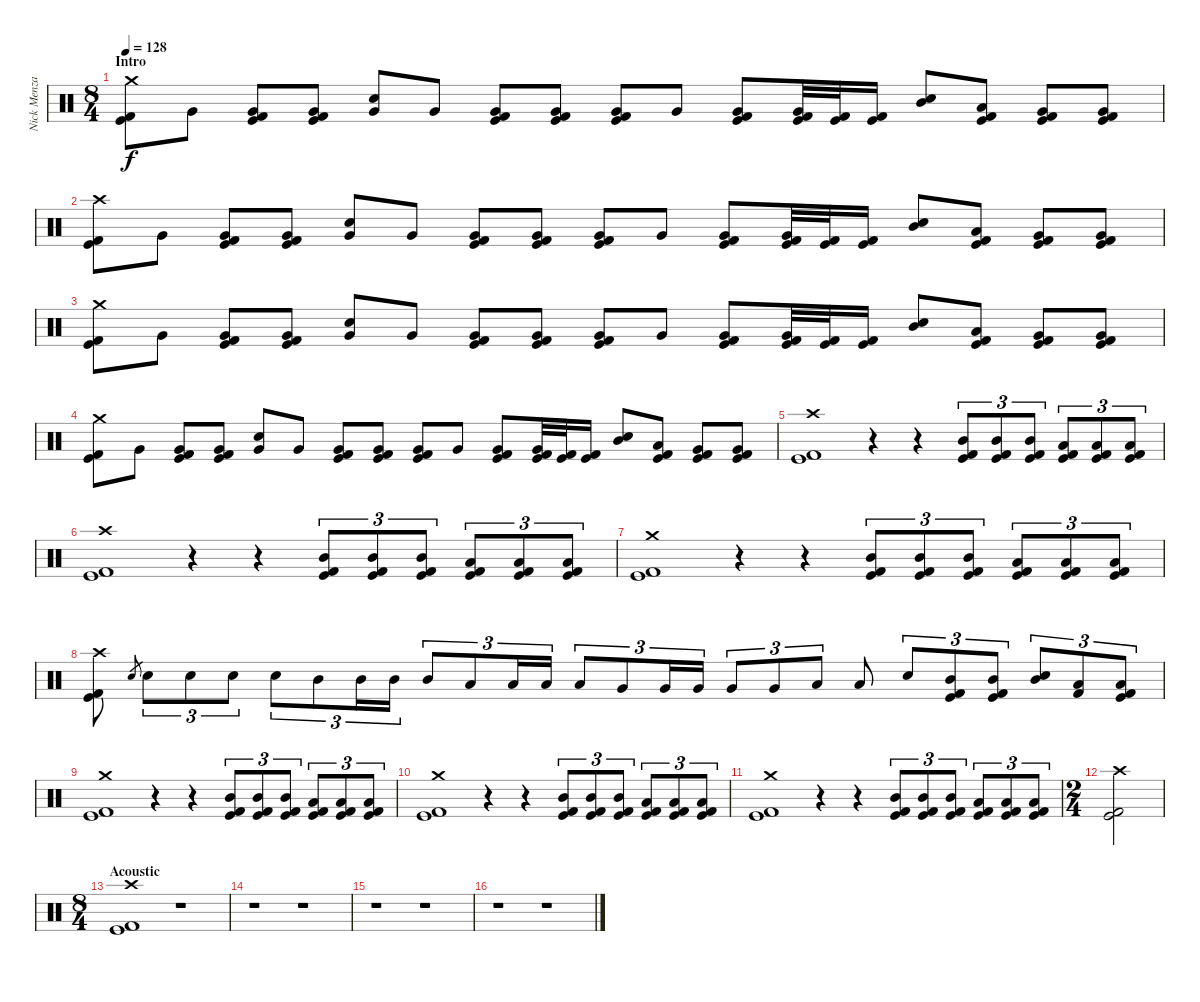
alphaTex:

\track ("Nick Menza" "Nick Menza") {instrument percussion}
\staff {score}
\articulation defaults
\ts (8 4)
\section ("" "Intro")
\tempo 128
\clef neutral
\ks c
("Crash medium (hit)" "Kick (hit)" "Kick (hit) 2").8{dy f} "Very Low Tom (hit)".8 ("Very Low Tom (hit)" "Kick (hit)" "Kick (hit) 2").8 ("Very Low Tom (hit)" "Kick (hit)" "Kick (hit) 2").8 ("Very Low Tom (hit)" "Electric Snare (hit)").8 "Very Low Tom (hit)".8 ("Very Low Tom (hit)" "Kick (hit)" "Kick (hit) 2").8 ("Very Low Tom (hit)" "Kick (hit)" "Kick (hit) 2").8 ("Very Low Tom (hit)" "Kick (hit)" "Kick (hit) 2").8 "Very Low Tom (hit)".8 ("Very Low Tom (hit)" "Kick (hit)" "Kick (hit) 2").8 ("Very Low Tom (hit)" "Kick (hit)" "Kick (hit) 2").32 ("Kick (hit)" "Kick (hit) 2").32 ("Kick (hit)" "Kick (hit) 2").16 ("Mid Tom (hit)" "Electric Snare (hit)").8 ("Low Tom (hit)" "Kick (hit)" "Kick (hit) 2").8 ("Very Low Tom (hit)" "Kick (hit)" "Kick (hit) 2").8 ("Very Low Tom (hit)" "Kick (hit)" "Kick (hit) 2").8 |
("Crash high (hit)" "Kick (hit)" "Kick (hit) 2").8 "Very Low Tom (hit)".8 ("Very Low Tom (hit)" "Kick (hit)" "Kick (hit) 2").8 ("Very Low Tom (hit)" "Kick (hit)" "Kick (hit) 2").8 ("Very Low Tom (hit)" "Electric Snare (hit)").8 "Very Low Tom (hit)".8 ("Very Low Tom (hit)" "Kick (hit)" "Kick (hit) 2").8 ("Very Low Tom (hit)" "Kick (hit)" "Kick (hit) 2").8 ("Very Low Tom (hit)" "Kick (hit)" "Kick (hit) 2").8 "Very Low Tom (hit)".8 ("Very Low Tom (hit)" "Kick (hit)" "Kick (hit) 2").8 ("Very Low Tom (hit)" "Kick (hit)" "Kick (hit) 2").32 ("Kick (hit)" "Kick (hit) 2").32 ("Kick (hit)" "Kick (hit) 2").16 ("Mid Tom (hit)" "Electric Snare (hit)").8 ("Low Tom (hit)" "Kick (hit)" "Kick (hit) 2").8 ("Very Low Tom (hit)" "Kick (hit)" "Kick (hit) 2").8 ("Very Low Tom (hit)" "Kick (hit)" "Kick (hit) 2").8 |
("Crash medium (hit)" "Kick (hit)" "Kick (hit) 2").8 "Very Low Tom (hit)".8 ("Very Low Tom (hit)" "Kick (hit)" "Kick (hit) 2").8 ("Very Low Tom (hit)" "Kick (hit)" "Kick (hit) 2").8 ("Very Low Tom (hit)" "Electric Snare (hit)").8 "Very Low Tom (hit)".8 ("Very Low Tom (hit)" "Kick (hit)" "Kick (hit) 2").8 ("Very Low Tom (hit)" "Kick (hit)" "Kick (hit) 2").8 ("Very Low Tom (hit)" "Kick (hit)" "Kick (hit) 2").8 "Very Low Tom (hit)".8 ("Very Low Tom (hit)" "Kick (hit)" "Kick (hit) 2").8 ("Very Low Tom (hit)" "Kick (hit)" "Kick (hit) 2").32 ("Kick (hit)" "Kick (hit) 2").32 ("Kick (hit)" "Kick (hit) 2").16 ("Mid Tom (hit)" "Electric Snare (hit)").8 ("Low Tom (hit)" "Kick (hit)" "Kick (hit) 2").8 ("Very Low Tom (hit)" "Kick (hit)" "Kick (hit) 2").8 ("Very Low Tom (hit)" "Kick (hit)" "Kick (hit) 2").8 |
("Crash medium (hit)" "Kick (hit)" "Kick (hit) 2").8 "Very Low Tom (hit)".8 ("Very Low Tom (hit)" "Kick (hit)" "Kick (hit) 2").8 ("Very Low Tom (hit)" "Kick (hit)" "Kick (hit) 2").8 ("Very Low Tom (hit)" "Electric Snare (hit)").8 "Very Low Tom (hit)".8 ("Very Low Tom (hit)" "Kick (hit)" "Kick (hit) 2").8 ("Very Low Tom (hit)" "Kick (hit)" "Kick (hit) 2").8 ("Very Low Tom (hit)" "Kick (hit)" "Kick (hit) 2").8 "Very Low Tom (hit)".8 ("Very Low Tom (hit)" "Kick (hit)" "Kick (hit) 2").8 ("Very Low Tom (hit)" "Kick (hit)" "Kick (hit) 2").32 ("Kick (hit)" "Kick (hit) 2").32 ("Kick (hit)" "Kick (hit) 2").16 ("Mid Tom (hit)" "Electric Snare (hit)").8 ("Low Tom (hit)" "Kick (hit)" "Kick (hit) 2").8 ("Very Low Tom (hit)" "Kick (hit)" "Kick (hit) 2").8 ("Very Low Tom (hit)" "Kick (hit)" "Kick (hit) 2").8 |
("Crash high (hit)" "Kick (hit)" "Kick (hit) 2").1 r.4 r.4 ("Mid Tom (hit)" "Kick (hit)" "Kick (hit) 2").8{tu (3 2)} ("Mid Tom (hit)" "Kick (hit)" "Kick (hit) 2").8{tu (3 2)} ("Mid Tom (hit)" "Kick (hit)" "Kick (hit) 2").8{tu (3 2)} ("Low Tom (hit)" "Kick (hit)" "Kick (hit) 2").8{tu (3 2)} ("Low Tom (hit)" "Kick (hit)" "Kick (hit) 2").8{tu (3 2)} ("Low Tom (hit)" "Kick (hit)" "Kick (hit) 2").8{tu (3 2)} |
("Crash high (hit)" "Kick (hit)" "Kick (hit) 2").1 r.4 r.4 ("Mid Tom (hit)" "Kick (hit)" "Kick (hit) 2").8{tu (3 2)} ("Mid Tom (hit)" "Kick (hit)" "Kick (hit) 2").8{tu (3 2)} ("Mid Tom (hit)" "Kick (hit)" "Kick (hit) 2").8{tu (3 2)} ("Low Tom (hit)" "Kick (hit)" "Kick (hit) 2").8{tu (3 2)} ("Low Tom (hit)" "Kick (hit)" "Kick (hit) 2").8{tu (3 2)} ("Low Tom (hit)" "Kick (hit)" "Kick (hit) 2").8{tu (3 2)} |
("Crash medium (hit)" "Kick (hit)" "Kick (hit) 2").1 r.4 r.4 ("Mid Tom (hit)" "Kick (hit)" "Kick (hit) 2").8{tu (3 2)} ("Mid Tom (hit)" "Kick (hit)" "Kick (hit) 2").8{tu (3 2)} ("Mid Tom (hit)" "Kick (hit)" "Kick (hit) 2").8{tu (3 2)} ("Low Tom (hit)" "Kick (hit)" "Kick (hit) 2").8{tu (3 2)} ("Low Tom (hit)" "Kick (hit)" "Kick (hit) 2").8{tu (3 2)} ("Low Tom (hit)" "Kick (hit)" "Kick (hit) 2").8{tu (3 2)} |
("Crash high (hit)" "Kick (hit)" "Kick (hit) 2").8 "Electric Snare (hit)".8{gr} "Electric Snare (hit)".8{tu (3 2)} "Electric Snare (hit)".8{tu (3 2)} "Electric Snare (hit)".8{tu (3 2)} "Electric Snare (hit)".8{tu (3 2)} "Mid Tom (hit)".8{tu (3 2)} "Mid Tom (hit)".16{tu (3 2)} "Mid Tom (hit)".16{tu (3 2)} "Mid Tom (hit)".8{tu (3 2)} "Low Tom (hit)".8{tu (3 2)} "Low Tom (hit)".16{tu (3 2)} "Low Tom (hit)".16{tu (3 2)} "Low Tom (hit)".8{tu (3 2)} "Very Low Tom (hit)".8{tu (3 2)} "Very Low Tom (hit)".16{tu (3 2)} "Very Low Tom (hit)".16{tu (3 2)} "Very Low Tom (hit)".8{tu (3 2)} "Very Low Tom (hit)".8{tu (3 2)} "Low Floor Tom (hit)".8{tu (3 2)} "Low Floor Tom (hit)".8 "Electric Snare (hit)".8{tu (3 2)} ("Mid Tom (hit)" "Kick (hit)" "Kick (hit) 2").8{tu (3 2)} ("Mid Tom (hit)" "Kick (hit)" "Kick (hit) 2").8{tu (3 2)} ("Mid Tom (hit)" "Electric Snare (hit)").8{tu (3 2)} ("Low Tom (hit)" "Kick (hit) 2").8{tu (3 2)} ("Low Tom (hit)" "Kick (hit)" "Kick (hit) 2").8{tu (3 2)} |
("Crash medium (hit)" "Kick (hit)" "Kick (hit) 2").1 r.4 r.4 ("Mid Tom (hit)" "Kick (hit)" "Kick (hit) 2").8{tu (3 2)} ("Mid Tom (hit)" "Kick (hit)" "Kick (hit) 2").8{tu (3 2)} ("Mid Tom (hit)" "Kick (hit)" "Kick (hit) 2").8{tu (3 2)} ("Low Tom (hit)" "Kick (hit)" "Kick (hit) 2").8{tu (3 2)} ("Low Tom (hit)" "Kick (hit)" "Kick (hit) 2").8{tu (3 2)} ("Low Tom (hit)" "Kick (hit)" "Kick (hit) 2").8{tu (3 2)} |
("Crash medium (hit)" "Kick (hit)" "Kick (hit) 2").1 r.4 r.4 ("Mid Tom (hit)" "Kick (hit)" "Kick (hit) 2").8{tu (3 2)} ("Mid Tom (hit)" "Kick (hit)" "Kick (hit) 2").8{tu (3 2)} ("Mid Tom (hit)" "Kick (hit)" "Kick (hit) 2").8{tu (3 2)} ("Low Tom (hit)" "Kick (hit)" "Kick (hit) 2").8{tu (3 2)} ("Low Tom (hit)" "Kick (hit)" "Kick (hit) 2").8{tu (3 2)} ("Low Tom (hit)" "Kick (hit)" "Kick (hit) 2").8{tu (3 2)} |
("Crash medium (hit)" "Kick (hit)" "Kick (hit) 2").1 r.4 r.4 ("Mid Tom (hit)" "Kick (hit)" "Kick (hit) 2").8{tu (3 2)} ("Mid Tom (hit)" "Kick (hit)" "Kick (hit) 2").8{tu (3 2)} ("Mid Tom (hit)" "Kick (hit)" "Kick (hit) 2").8{tu (3 2)} ("Low Tom (hit)" "Kick (hit)" "Kick (hit) 2").8{tu (3 2)} ("Low Tom (hit)" "Kick (hit)" "Kick (hit) 2").8{tu (3 2)} ("Low Tom (hit)" "Kick (hit)" "Kick (hit) 2").8{tu (3 2)} |
\ts (2 4)
("Crash high (hit)" "Kick (hit)" "Kick (hit) 2").2 |
\ts (8 4)
\section ("" "Acoustic")
("Crash high (hit)" "Kick (hit)" "Kick (hit) 2").1 r.1 |
r.1 r.1 |
r.1 r.1 |
r.1 r.1
